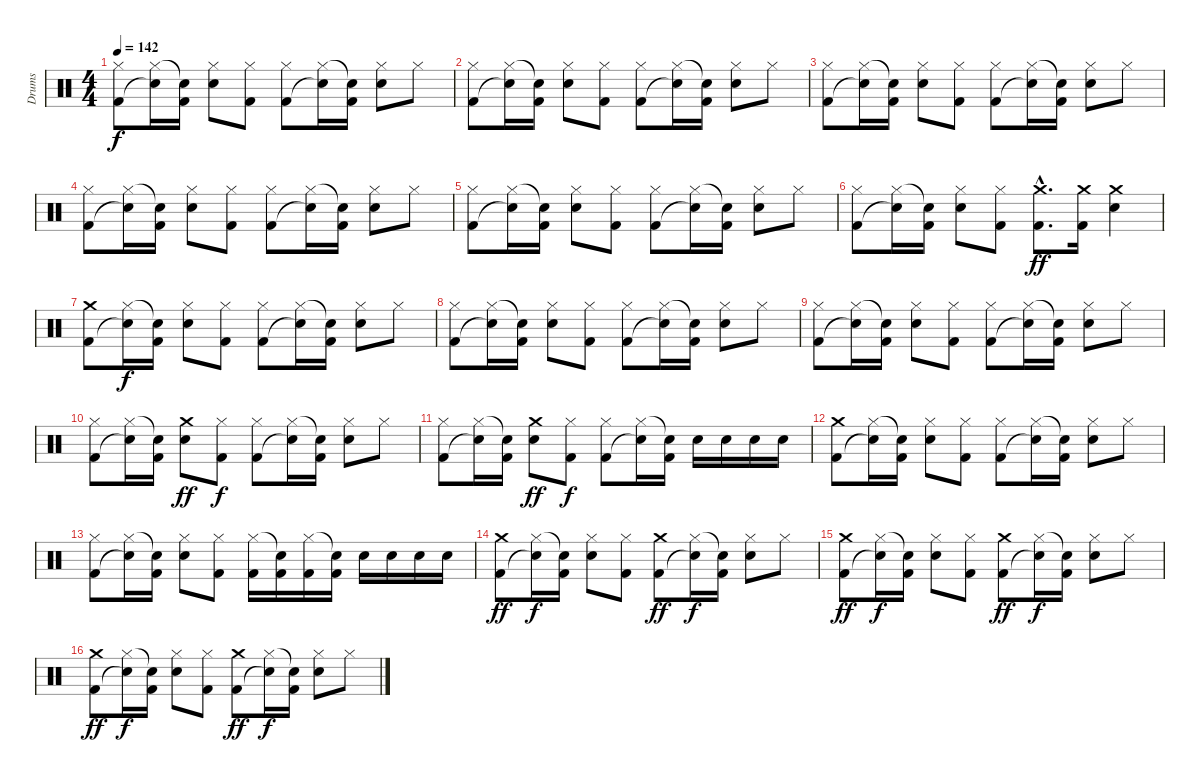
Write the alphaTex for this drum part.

\track ("Drums" "Drums") {instrument percussion}
\staff {score}
\articulation defaults
\ts (4 4)
\tempo 142
\clef neutral
\ks c
("Hi-Hat (closed)" "Kick (hit) 2").8{dy f} ("Hi-Hat (closed)" "Snare (hit)"{t}).16 ("Snare (hit)"{t} "Kick (hit) 2").16 ("Hi-Hat (closed)" "Snare (hit) 2").8 ("Hi-Hat (closed)" "Kick (hit) 2").8 ("Hi-Hat (closed)" "Kick (hit) 2").8 ("Hi-Hat (closed)" "Snare (hit)"{t}).16 ("Snare (hit)"{t} "Kick (hit) 2").16 ("Hi-Hat (closed)" "Snare (hit) 2").8 "Hi-Hat (closed)".8 |
("Hi-Hat (closed)" "Kick (hit) 2").8 ("Hi-Hat (closed)" "Snare (hit)"{t}).16 ("Snare (hit)"{t} "Kick (hit) 2").16 ("Hi-Hat (closed)" "Snare (hit) 2").8 ("Hi-Hat (closed)" "Kick (hit) 2").8 ("Hi-Hat (closed)" "Kick (hit) 2").8 ("Hi-Hat (closed)" "Snare (hit)"{t}).16 ("Snare (hit)"{t} "Kick (hit) 2").16 ("Hi-Hat (closed)" "Snare (hit) 2").8 "Hi-Hat (closed)".8 |
("Hi-Hat (closed)" "Kick (hit) 2").8 ("Hi-Hat (closed)" "Snare (hit)"{t}).16 ("Snare (hit)"{t} "Kick (hit) 2").16 ("Hi-Hat (closed)" "Snare (hit) 2").8 ("Hi-Hat (closed)" "Kick (hit) 2").8 ("Hi-Hat (closed)" "Kick (hit) 2").8 ("Hi-Hat (closed)" "Snare (hit)"{t}).16 ("Snare (hit)"{t} "Kick (hit) 2").16 ("Hi-Hat (closed)" "Snare (hit) 2").8 "Hi-Hat (closed)".8 |
("Hi-Hat (closed)" "Kick (hit) 2").8 ("Hi-Hat (closed)" "Snare (hit)"{t}).16 ("Snare (hit)"{t} "Kick (hit) 2").16 ("Hi-Hat (closed)" "Snare (hit) 2").8 ("Hi-Hat (closed)" "Kick (hit) 2").8 ("Hi-Hat (closed)" "Kick (hit) 2").8 ("Hi-Hat (closed)" "Snare (hit)"{t}).16 ("Snare (hit)"{t} "Kick (hit) 2").16 ("Hi-Hat (closed)" "Snare (hit) 2").8 "Hi-Hat (closed)".8 |
("Hi-Hat (closed)" "Kick (hit) 2").8 ("Hi-Hat (closed)" "Snare (hit)"{t}).16 ("Snare (hit)"{t} "Kick (hit) 2").16 ("Hi-Hat (closed)" "Snare (hit) 2").8 ("Hi-Hat (closed)" "Kick (hit) 2").8 ("Hi-Hat (closed)" "Kick (hit) 2").8 ("Hi-Hat (closed)" "Snare (hit)"{t}).16 ("Snare (hit)"{t} "Kick (hit) 2").16 ("Hi-Hat (closed)" "Snare (hit) 2").8 "Hi-Hat (closed)".8 |
("Hi-Hat (closed)" "Kick (hit) 2").8 ("Hi-Hat (closed)" "Snare (hit)"{t}).16 ("Snare (hit)"{t} "Kick (hit) 2").16 ("Hi-Hat (closed)" "Snare (hit) 2").8 ("Hi-Hat (closed)" "Kick (hit) 2").8 ("Crash medium (hit)"{hac} "Kick (hit) 2"{hac}).8{d dy ff} ("Crash medium (hit)" "Kick (hit) 2").16 ("Crash medium (hit)" "Snare (hit) 2").4 |
("Crash medium (hit)" "Kick (hit) 2").8 ("Hi-Hat (closed)" "Snare (hit)"{t}).16{dy f} ("Snare (hit)"{t} "Kick (hit) 2").16 ("Hi-Hat (closed)" "Snare (hit) 2").8 ("Hi-Hat (closed)" "Kick (hit) 2").8 ("Hi-Hat (closed)" "Kick (hit) 2").8 ("Hi-Hat (closed)" "Snare (hit)"{t}).16 ("Snare (hit)"{t} "Kick (hit) 2").16 ("Hi-Hat (closed)" "Snare (hit) 2").8 "Hi-Hat (closed)".8 |
("Hi-Hat (closed)" "Kick (hit) 2").8 ("Hi-Hat (closed)" "Snare (hit)"{t}).16 ("Snare (hit)"{t} "Kick (hit) 2").16 ("Hi-Hat (closed)" "Snare (hit) 2").8 ("Hi-Hat (closed)" "Kick (hit) 2").8 ("Hi-Hat (closed)" "Kick (hit) 2").8 ("Hi-Hat (closed)" "Snare (hit)"{t}).16 ("Snare (hit)"{t} "Kick (hit) 2").16 ("Hi-Hat (closed)" "Snare (hit) 2").8 "Hi-Hat (closed)".8 |
("Hi-Hat (closed)" "Kick (hit) 2").8 ("Hi-Hat (closed)" "Snare (hit)"{t}).16 ("Snare (hit)"{t} "Kick (hit) 2").16 ("Hi-Hat (closed)" "Snare (hit) 2").8 ("Hi-Hat (closed)" "Kick (hit) 2").8 ("Hi-Hat (closed)" "Kick (hit) 2").8 ("Hi-Hat (closed)" "Snare (hit)"{t}).16 ("Snare (hit)"{t} "Kick (hit) 2").16 ("Hi-Hat (closed)" "Snare (hit) 2").8 "Hi-Hat (closed)".8 |
("Hi-Hat (closed)" "Kick (hit) 2").8 ("Hi-Hat (closed)" "Snare (hit)"{t}).16 ("Snare (hit)"{t} "Kick (hit) 2").16 ("Crash medium (hit)" "Snare (hit) 2").8{dy ff} ("Hi-Hat (closed)" "Kick (hit) 2").8{dy f} ("Hi-Hat (closed)" "Kick (hit) 2").8 ("Hi-Hat (closed)" "Snare (hit)"{t}).16 ("Snare (hit)"{t} "Kick (hit) 2").16 ("Hi-Hat (closed)" "Snare (hit) 2").8 "Hi-Hat (closed)".8 |
("Hi-Hat (closed)" "Kick (hit) 2").8 ("Hi-Hat (closed)" "Snare (hit)"{t}).16 ("Snare (hit)"{t} "Kick (hit) 2").16 ("Crash medium (hit)" "Snare (hit) 2").8{dy ff} ("Hi-Hat (closed)" "Kick (hit) 2").8{dy f} ("Hi-Hat (closed)" "Kick (hit) 2").8 ("Hi-Hat (closed)" "Snare (hit)"{t}).16 ("Snare (hit)"{t} "Kick (hit) 2").16 "Snare (hit) 2".16 "Snare (hit) 2".16 "Snare (hit) 2".16 "Snare (hit) 2".16 |
("Crash medium (hit)" "Kick (hit) 2").8 ("Hi-Hat (closed)" "Snare (hit)"{t}).16 ("Snare (hit)"{t} "Kick (hit) 2").16 ("Hi-Hat (closed)" "Snare (hit) 2").8 ("Hi-Hat (closed)" "Kick (hit) 2").8 ("Hi-Hat (closed)" "Kick (hit) 2").8 ("Hi-Hat (closed)" "Snare (hit)"{t}).16 ("Snare (hit)"{t} "Kick (hit) 2").16 ("Hi-Hat (closed)" "Snare (hit) 2").8 "Hi-Hat (closed)".8 |
("Hi-Hat (closed)" "Kick (hit) 2").8 ("Hi-Hat (closed)" "Snare (hit)"{t}).16 ("Snare (hit)"{t} "Kick (hit) 2").16 ("Hi-Hat (closed)" "Snare (hit) 2").8 ("Hi-Hat (closed)" "Kick (hit) 2").8 ("Hi-Hat (closed)" "Kick (hit) 2").16 ("Snare (hit)"{t} "Kick (hit) 2").16 ("Hi-Hat (closed)" "Kick (hit) 2").16 ("Snare (hit)"{t} "Kick (hit) 2").16 "Snare (hit) 2".16 "Snare (hit) 2".16 "Snare (hit) 2".16 "Snare (hit) 2".16 |
("Crash medium (hit)" "Kick (hit) 2").8{dy ff} ("Hi-Hat (closed)" "Snare (hit)"{t}).16{dy f} ("Snare (hit)"{t} "Kick (hit) 2").16 ("Hi-Hat (closed)" "Snare (hit) 2").8 ("Hi-Hat (closed)" "Kick (hit) 2").8 ("Crash medium (hit)" "Kick (hit) 2").8{dy ff} ("Hi-Hat (closed)" "Snare (hit)"{t}).16{dy f} ("Snare (hit)"{t} "Kick (hit) 2").16 ("Hi-Hat (closed)" "Snare (hit) 2").8 "Hi-Hat (closed)".8 |
("Crash medium (hit)" "Kick (hit) 2").8{dy ff} ("Hi-Hat (closed)" "Snare (hit)"{t}).16{dy f} ("Snare (hit)"{t} "Kick (hit) 2").16 ("Hi-Hat (closed)" "Snare (hit) 2").8 ("Hi-Hat (closed)" "Kick (hit) 2").8 ("Crash medium (hit)" "Kick (hit) 2").8{dy ff} ("Hi-Hat (closed)" "Snare (hit)"{t}).16{dy f} ("Snare (hit)"{t} "Kick (hit) 2").16 ("Hi-Hat (closed)" "Snare (hit) 2").8 "Hi-Hat (closed)".8 |
("Crash medium (hit)" "Kick (hit) 2").8{dy ff} ("Hi-Hat (closed)" "Snare (hit)"{t}).16{dy f} ("Snare (hit)"{t} "Kick (hit) 2").16 ("Hi-Hat (closed)" "Snare (hit) 2").8 ("Hi-Hat (closed)" "Kick (hit) 2").8 ("Crash medium (hit)" "Kick (hit) 2").8{dy ff} ("Hi-Hat (closed)" "Snare (hit)"{t}).16{dy f} ("Snare (hit)"{t} "Kick (hit) 2").16 ("Hi-Hat (closed)" "Snare (hit) 2").8 "Hi-Hat (closed)".8
